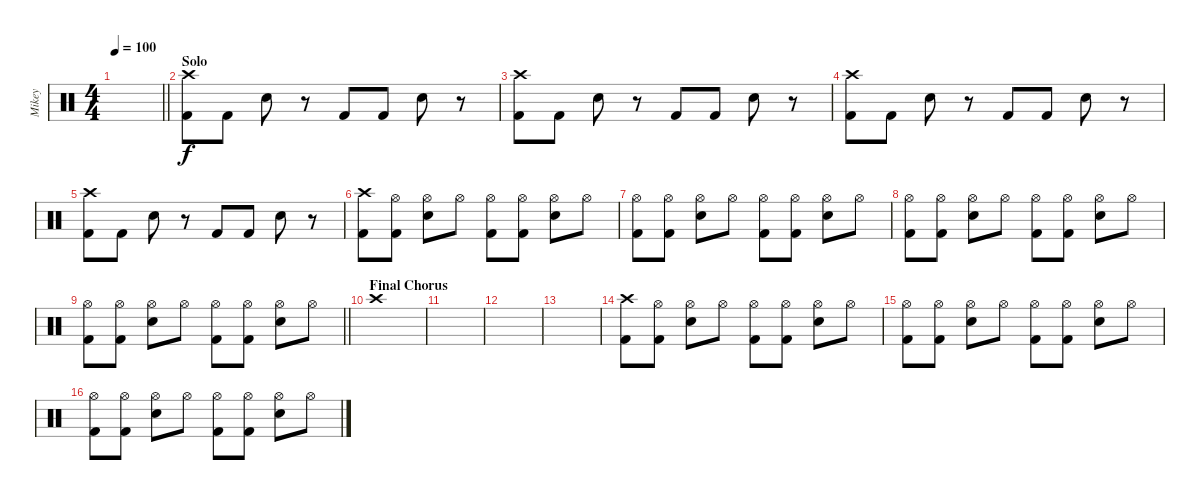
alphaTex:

\track ("Mikey" "Mikey") {instrument percussion}
\staff {score}
\articulation defaults
\ts (4 4)
\tempo 100
\clef neutral
\barLineRight lightlight
\ks c
|
\section ("" "Solo")
("Crash high (hit)" "Kick (hit) 2").8 "Kick (hit) 2".8 "Snare (hit) 2".8 r.8 "Kick (hit) 2".8 "Kick (hit) 2".8 "Snare (hit) 2".8 r.8 |
("Crash high (hit)" "Kick (hit) 2").8 "Kick (hit) 2".8 "Snare (hit) 2".8 r.8 "Kick (hit) 2".8 "Kick (hit) 2".8 "Snare (hit) 2".8 r.8 |
("Crash high (hit)" "Kick (hit) 2").8 "Kick (hit) 2".8 "Snare (hit) 2".8 r.8 "Kick (hit) 2".8 "Kick (hit) 2".8 "Snare (hit) 2".8 r.8 |
("Crash high (hit)" "Kick (hit) 2").8 "Kick (hit) 2".8 "Snare (hit) 2".8 r.8 "Kick (hit) 2".8 "Kick (hit) 2".8 "Snare (hit) 2".8 r.8 |
("Crash high (hit)" "Kick (hit) 2").8 ("Hi-Hat (open)" "Kick (hit) 2").8 ("Hi-Hat (open)" "Snare (hit) 2").8 "Hi-Hat (open)".8 ("Hi-Hat (open)" "Kick (hit) 2").8 ("Hi-Hat (open)" "Kick (hit) 2").8 ("Hi-Hat (open)" "Snare (hit) 2").8 "Hi-Hat (open)".8 |
("Hi-Hat (open)" "Kick (hit) 2").8 ("Hi-Hat (open)" "Kick (hit) 2").8 ("Hi-Hat (open)" "Snare (hit) 2").8 "Hi-Hat (open)".8 ("Hi-Hat (open)" "Kick (hit) 2").8 ("Hi-Hat (open)" "Kick (hit) 2").8 ("Hi-Hat (open)" "Snare (hit) 2").8 "Hi-Hat (open)".8 |
("Hi-Hat (open)" "Kick (hit) 2").8 ("Hi-Hat (open)" "Kick (hit) 2").8 ("Hi-Hat (open)" "Snare (hit) 2").8 "Hi-Hat (open)".8 ("Hi-Hat (open)" "Kick (hit) 2").8 ("Hi-Hat (open)" "Kick (hit) 2").8 ("Hi-Hat (open)" "Snare (hit) 2").8 "Hi-Hat (open)".8 |
\barLineRight lightlight
("Hi-Hat (open)" "Kick (hit) 2").8 ("Hi-Hat (open)" "Kick (hit) 2").8 ("Hi-Hat (open)" "Snare (hit) 2").8 "Hi-Hat (open)".8 ("Hi-Hat (open)" "Kick (hit) 2").8 ("Hi-Hat (open)" "Kick (hit) 2").8 ("Hi-Hat (open)" "Snare (hit) 2").8 "Hi-Hat (open)".8 |
\section ("" "Final Chorus")
"Crash high (hit)".1 |
|
|
|
("Crash high (hit)" "Kick (hit) 2").8 ("Hi-Hat (open)" "Kick (hit) 2").8 ("Hi-Hat (open)" "Snare (hit) 2").8 "Hi-Hat (open)".8 ("Hi-Hat (open)" "Kick (hit) 2").8 ("Hi-Hat (open)" "Kick (hit) 2").8 ("Hi-Hat (open)" "Snare (hit) 2").8 "Hi-Hat (open)".8 |
("Hi-Hat (open)" "Kick (hit) 2").8 ("Hi-Hat (open)" "Kick (hit) 2").8 ("Hi-Hat (open)" "Snare (hit) 2").8 "Hi-Hat (open)".8 ("Hi-Hat (open)" "Kick (hit) 2").8 ("Hi-Hat (open)" "Kick (hit) 2").8 ("Hi-Hat (open)" "Snare (hit) 2").8 "Hi-Hat (open)".8 |
("Hi-Hat (open)" "Kick (hit) 2").8 ("Hi-Hat (open)" "Kick (hit) 2").8 ("Hi-Hat (open)" "Snare (hit) 2").8 "Hi-Hat (open)".8 ("Hi-Hat (open)" "Kick (hit) 2").8 ("Hi-Hat (open)" "Kick (hit) 2").8 ("Hi-Hat (open)" "Snare (hit) 2").8 "Hi-Hat (open)".8
